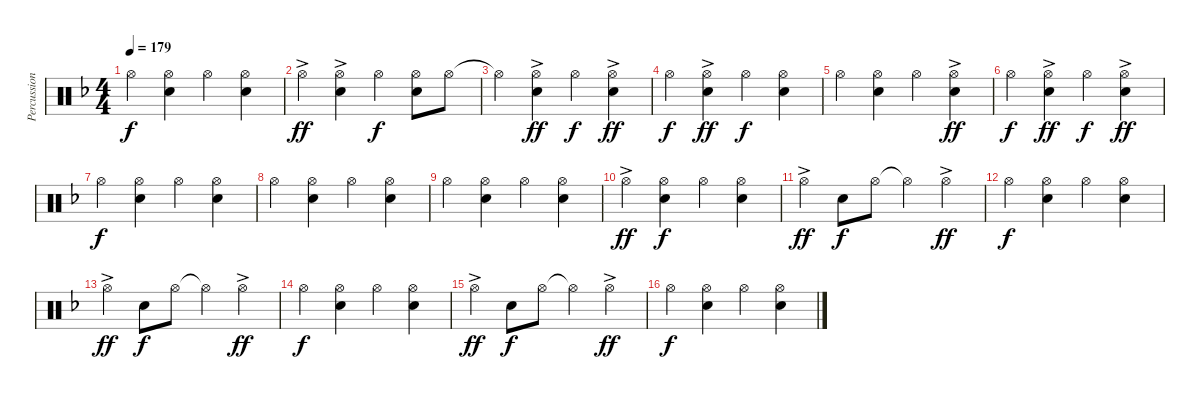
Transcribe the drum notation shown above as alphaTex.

\track ("Percussion 01" "Percussion") {instrument percussion}
\staff {score}
\articulation defaults
\ts (4 4)
\tempo 179
\clef neutral
\ks dminor "Hi-Hat (open)".4{dy f}
("Hi-Hat (open)" "Snare (hit) 2").4 "Hi-Hat (open)".4 ("Hi-Hat (open)" "Snare (hit) 2").4 |
"Hi-Hat (open)"{ac}.4{dy ff} ("Hi-Hat (open)"{ac} "Snare (hit) 2").4 "Hi-Hat (open)".4{dy f} ("Hi-Hat (open)" "Snare (hit) 2").8 "Hi-Hat (open)".8 |
"Hi-Hat (open)"{t}.4 ("Hi-Hat (open)"{ac} "Snare (hit) 2").4{dy ff} "Hi-Hat (open)".4{dy f} ("Hi-Hat (open)"{ac} "Snare (hit) 2").4{dy ff} |
"Hi-Hat (open)".4{dy f} ("Hi-Hat (open)"{ac} "Snare (hit) 2").4{dy ff} "Hi-Hat (open)".4{dy f} ("Hi-Hat (open)" "Snare (hit) 2").4 |
"Hi-Hat (open)".4 ("Hi-Hat (open)" "Snare (hit) 2").4 "Hi-Hat (open)".4 ("Hi-Hat (open)"{ac} "Snare (hit) 2").4{dy ff} |
"Hi-Hat (open)".4{dy f} ("Hi-Hat (open)"{ac} "Snare (hit) 2").4{dy ff} "Hi-Hat (open)".4{dy f} ("Hi-Hat (open)"{ac} "Snare (hit) 2").4{dy ff} |
"Hi-Hat (open)".4{dy f} ("Hi-Hat (open)" "Snare (hit) 2").4 "Hi-Hat (open)".4 ("Hi-Hat (open)" "Snare (hit) 2").4 |
"Hi-Hat (open)".4 ("Hi-Hat (open)" "Snare (hit) 2").4 "Hi-Hat (open)".4 ("Hi-Hat (open)" "Snare (hit) 2").4 |
"Hi-Hat (open)".4 ("Hi-Hat (open)" "Snare (hit) 2").4 "Hi-Hat (open)".4 ("Hi-Hat (open)" "Snare (hit) 2").4 |
"Hi-Hat (open)"{ac}.4{dy ff} ("Hi-Hat (open)" "Snare (hit) 2").4{dy f} "Hi-Hat (open)".4 ("Hi-Hat (open)" "Snare (hit) 2").4 |
"Hi-Hat (open)"{ac}.4{dy ff} "Snare (hit) 2".8{dy f} "Hi-Hat (open)".8 "Hi-Hat (open)"{t}.4 "Hi-Hat (open)"{ac}.4{dy ff} |
"Hi-Hat (open)".4{dy f} ("Hi-Hat (open)" "Snare (hit) 2").4 "Hi-Hat (open)".4 ("Hi-Hat (open)" "Snare (hit) 2").4 |
"Hi-Hat (open)"{ac}.4{dy ff} "Snare (hit) 2".8{dy f} "Hi-Hat (open)".8 "Hi-Hat (open)"{t}.4 "Hi-Hat (open)"{ac}.4{dy ff} |
"Hi-Hat (open)".4{dy f} ("Hi-Hat (open)" "Snare (hit) 2").4 "Hi-Hat (open)".4 ("Hi-Hat (open)" "Snare (hit) 2").4 |
"Hi-Hat (open)"{ac}.4{dy ff} "Snare (hit) 2".8{dy f} "Hi-Hat (open)".8 "Hi-Hat (open)"{t}.4 "Hi-Hat (open)"{ac}.4{dy ff} |
"Hi-Hat (open)".4{dy f} ("Hi-Hat (open)" "Snare (hit) 2").4 "Hi-Hat (open)".4 ("Hi-Hat (open)" "Snare (hit) 2").4
